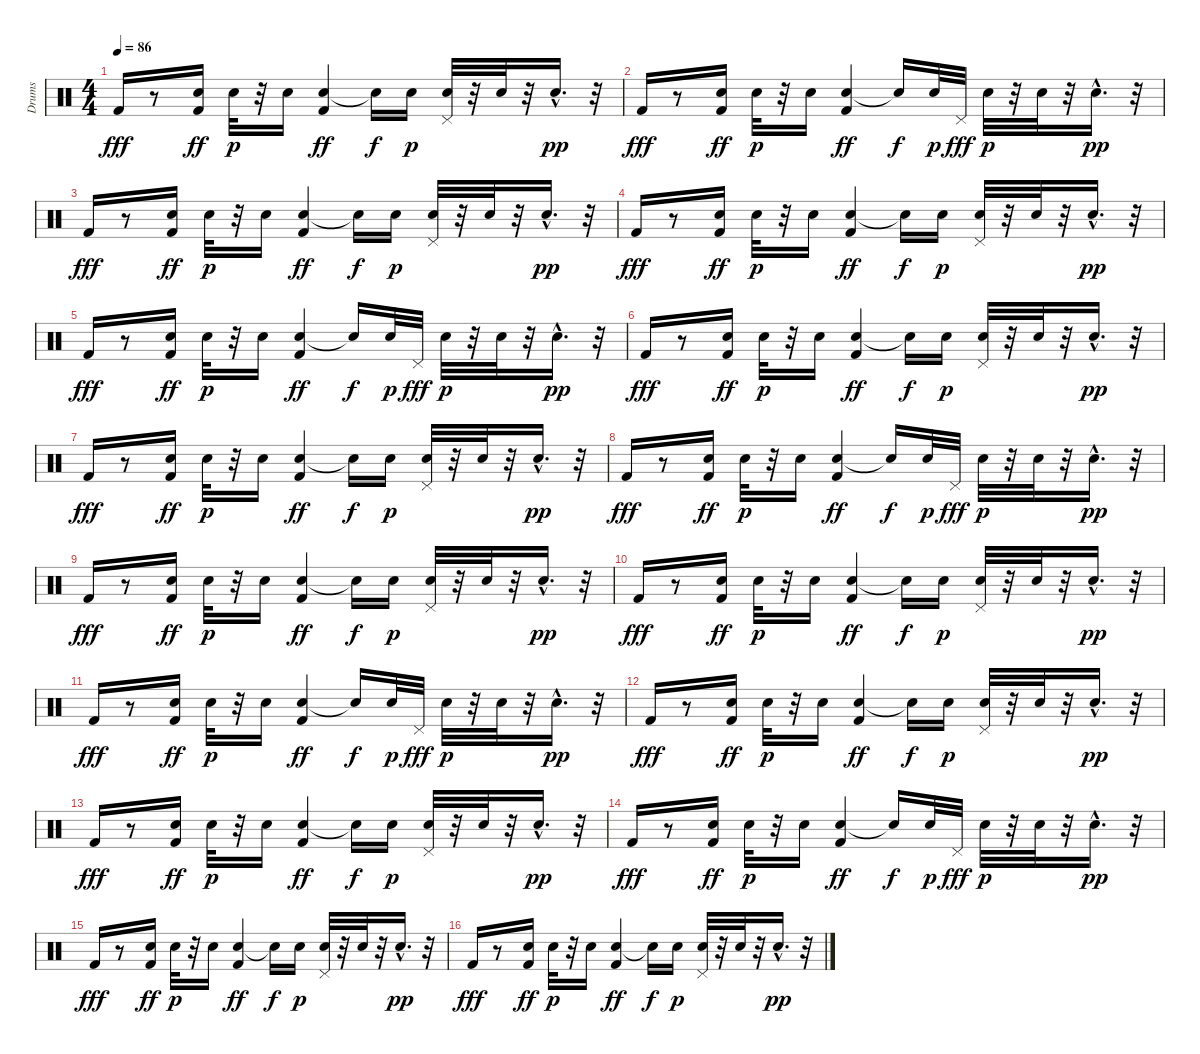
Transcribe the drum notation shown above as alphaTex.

\track ("Drums" "Drums") {instrument percussion}
\staff {score}
\articulation defaults
\ts (4 4)
\tempo 86
\clef neutral
\ks c "Kick (hit) 2".16{dy fff}
r.8 ("Snare (hit) 2" "Kick (hit) 2").16{dy ff} "Snare (hit) 2".32{dy p} r.32 "Snare (hit) 2".16 ("Snare (hit) 2" "Kick (hit) 2").4{dy ff} "Snare (hit)"{t}.16{dy f} "Snare (hit) 2".16{dy p} ("Pedal Hi-Hat (hit)" "Snare (hit) 2").32 r.32 "Snare (hit) 2".32 r.32 "Snare (hit) 2"{hac}.16{d dy pp} r.32 |
"Kick (hit) 2".16{dy fff} r.8 ("Snare (hit) 2" "Kick (hit) 2").16{dy ff} "Snare (hit) 2".32{dy p} r.32 "Snare (hit) 2".16 ("Snare (hit) 2" "Kick (hit) 2").4{dy ff} "Snare (hit)"{t}.16{dy f} "Snare (hit) 2".32{dy p} "Pedal Hi-Hat (hit)".32{dy fff} "Snare (hit) 2".32{dy p} r.32 "Snare (hit) 2".32 r.32 "Snare (hit) 2"{hac}.16{d dy pp} r.32 |
"Kick (hit) 2".16{dy fff} r.8 ("Snare (hit) 2" "Kick (hit) 2").16{dy ff} "Snare (hit) 2".32{dy p} r.32 "Snare (hit) 2".16 ("Snare (hit) 2" "Kick (hit) 2").4{dy ff} "Snare (hit)"{t}.16{dy f} "Snare (hit) 2".16{dy p} ("Pedal Hi-Hat (hit)" "Snare (hit) 2").32 r.32 "Snare (hit) 2".32 r.32 "Snare (hit) 2"{hac}.16{d dy pp} r.32 |
"Kick (hit) 2".16{dy fff} r.8 ("Snare (hit) 2" "Kick (hit) 2").16{dy ff} "Snare (hit) 2".32{dy p} r.32 "Snare (hit) 2".16 ("Snare (hit) 2" "Kick (hit) 2").4{dy ff} "Snare (hit)"{t}.16{dy f} "Snare (hit) 2".16{dy p} ("Pedal Hi-Hat (hit)" "Snare (hit) 2").32 r.32 "Snare (hit) 2".32 r.32 "Snare (hit) 2"{hac}.16{d dy pp} r.32 |
"Kick (hit) 2".16{dy fff} r.8 ("Snare (hit) 2" "Kick (hit) 2").16{dy ff} "Snare (hit) 2".32{dy p} r.32 "Snare (hit) 2".16 ("Snare (hit) 2" "Kick (hit) 2").4{dy ff} "Snare (hit)"{t}.16{dy f} "Snare (hit) 2".32{dy p} "Pedal Hi-Hat (hit)".32{dy fff} "Snare (hit) 2".32{dy p} r.32 "Snare (hit) 2".32 r.32 "Snare (hit) 2"{hac}.16{d dy pp} r.32 |
"Kick (hit) 2".16{dy fff} r.8 ("Snare (hit) 2" "Kick (hit) 2").16{dy ff} "Snare (hit) 2".32{dy p} r.32 "Snare (hit) 2".16 ("Snare (hit) 2" "Kick (hit) 2").4{dy ff} "Snare (hit)"{t}.16{dy f} "Snare (hit) 2".16{dy p} ("Pedal Hi-Hat (hit)" "Snare (hit) 2").32 r.32 "Snare (hit) 2".32 r.32 "Snare (hit) 2"{hac}.16{d dy pp} r.32 |
"Kick (hit) 2".16{dy fff} r.8 ("Snare (hit) 2" "Kick (hit) 2").16{dy ff} "Snare (hit) 2".32{dy p} r.32 "Snare (hit) 2".16 ("Snare (hit) 2" "Kick (hit) 2").4{dy ff} "Snare (hit)"{t}.16{dy f} "Snare (hit) 2".16{dy p} ("Pedal Hi-Hat (hit)" "Snare (hit) 2").32 r.32 "Snare (hit) 2".32 r.32 "Snare (hit) 2"{hac}.16{d dy pp} r.32 |
"Kick (hit) 2".16{dy fff} r.8 ("Snare (hit) 2" "Kick (hit) 2").16{dy ff} "Snare (hit) 2".32{dy p} r.32 "Snare (hit) 2".16 ("Snare (hit) 2" "Kick (hit) 2").4{dy ff} "Snare (hit)"{t}.16{dy f} "Snare (hit) 2".32{dy p} "Pedal Hi-Hat (hit)".32{dy fff} "Snare (hit) 2".32{dy p} r.32 "Snare (hit) 2".32 r.32 "Snare (hit) 2"{hac}.16{d dy pp} r.32 |
"Kick (hit) 2".16{dy fff} r.8 ("Snare (hit) 2" "Kick (hit) 2").16{dy ff} "Snare (hit) 2".32{dy p} r.32 "Snare (hit) 2".16 ("Snare (hit) 2" "Kick (hit) 2").4{dy ff} "Snare (hit)"{t}.16{dy f} "Snare (hit) 2".16{dy p} ("Pedal Hi-Hat (hit)" "Snare (hit) 2").32 r.32 "Snare (hit) 2".32 r.32 "Snare (hit) 2"{hac}.16{d dy pp} r.32 |
"Kick (hit) 2".16{dy fff} r.8 ("Snare (hit) 2" "Kick (hit) 2").16{dy ff} "Snare (hit) 2".32{dy p} r.32 "Snare (hit) 2".16 ("Snare (hit) 2" "Kick (hit) 2").4{dy ff} "Snare (hit)"{t}.16{dy f} "Snare (hit) 2".16{dy p} ("Pedal Hi-Hat (hit)" "Snare (hit) 2").32 r.32 "Snare (hit) 2".32 r.32 "Snare (hit) 2"{hac}.16{d dy pp} r.32 |
"Kick (hit) 2".16{dy fff} r.8 ("Snare (hit) 2" "Kick (hit) 2").16{dy ff} "Snare (hit) 2".32{dy p} r.32 "Snare (hit) 2".16 ("Snare (hit) 2" "Kick (hit) 2").4{dy ff} "Snare (hit)"{t}.16{dy f} "Snare (hit) 2".32{dy p} "Pedal Hi-Hat (hit)".32{dy fff} "Snare (hit) 2".32{dy p} r.32 "Snare (hit) 2".32 r.32 "Snare (hit) 2"{hac}.16{d dy pp} r.32 |
"Kick (hit) 2".16{dy fff} r.8 ("Snare (hit) 2" "Kick (hit) 2").16{dy ff} "Snare (hit) 2".32{dy p} r.32 "Snare (hit) 2".16 ("Snare (hit) 2" "Kick (hit) 2").4{dy ff} "Snare (hit)"{t}.16{dy f} "Snare (hit) 2".16{dy p} ("Pedal Hi-Hat (hit)" "Snare (hit) 2").32 r.32 "Snare (hit) 2".32 r.32 "Snare (hit) 2"{hac}.16{d dy pp} r.32 |
"Kick (hit) 2".16{dy fff} r.8 ("Snare (hit) 2" "Kick (hit) 2").16{dy ff} "Snare (hit) 2".32{dy p} r.32 "Snare (hit) 2".16 ("Snare (hit) 2" "Kick (hit) 2").4{dy ff} "Snare (hit)"{t}.16{dy f} "Snare (hit) 2".16{dy p} ("Pedal Hi-Hat (hit)" "Snare (hit) 2").32 r.32 "Snare (hit) 2".32 r.32 "Snare (hit) 2"{hac}.16{d dy pp} r.32 |
"Kick (hit) 2".16{dy fff} r.8 ("Snare (hit) 2" "Kick (hit) 2").16{dy ff} "Snare (hit) 2".32{dy p} r.32 "Snare (hit) 2".16 ("Snare (hit) 2" "Kick (hit) 2").4{dy ff} "Snare (hit)"{t}.16{dy f} "Snare (hit) 2".32{dy p} "Pedal Hi-Hat (hit)".32{dy fff} "Snare (hit) 2".32{dy p} r.32 "Snare (hit) 2".32 r.32 "Snare (hit) 2"{hac}.16{d dy pp} r.32 |
"Kick (hit) 2".16{dy fff} r.8 ("Snare (hit) 2" "Kick (hit) 2").16{dy ff} "Snare (hit) 2".32{dy p} r.32 "Snare (hit) 2".16 ("Snare (hit) 2" "Kick (hit) 2").4{dy ff} "Snare (hit)"{t}.16{dy f} "Snare (hit) 2".16{dy p} ("Pedal Hi-Hat (hit)" "Snare (hit) 2").32 r.32 "Snare (hit) 2".32 r.32 "Snare (hit) 2"{hac}.16{d dy pp} r.32 |
"Kick (hit) 2".16{dy fff} r.8 ("Snare (hit) 2" "Kick (hit) 2").16{dy ff} "Snare (hit) 2".32{dy p} r.32 "Snare (hit) 2".16 ("Snare (hit) 2" "Kick (hit) 2").4{dy ff} "Snare (hit)"{t}.16{dy f} "Snare (hit) 2".16{dy p} ("Pedal Hi-Hat (hit)" "Snare (hit) 2").32 r.32 "Snare (hit) 2".32 r.32 "Snare (hit) 2"{hac}.16{d dy pp} r.32
